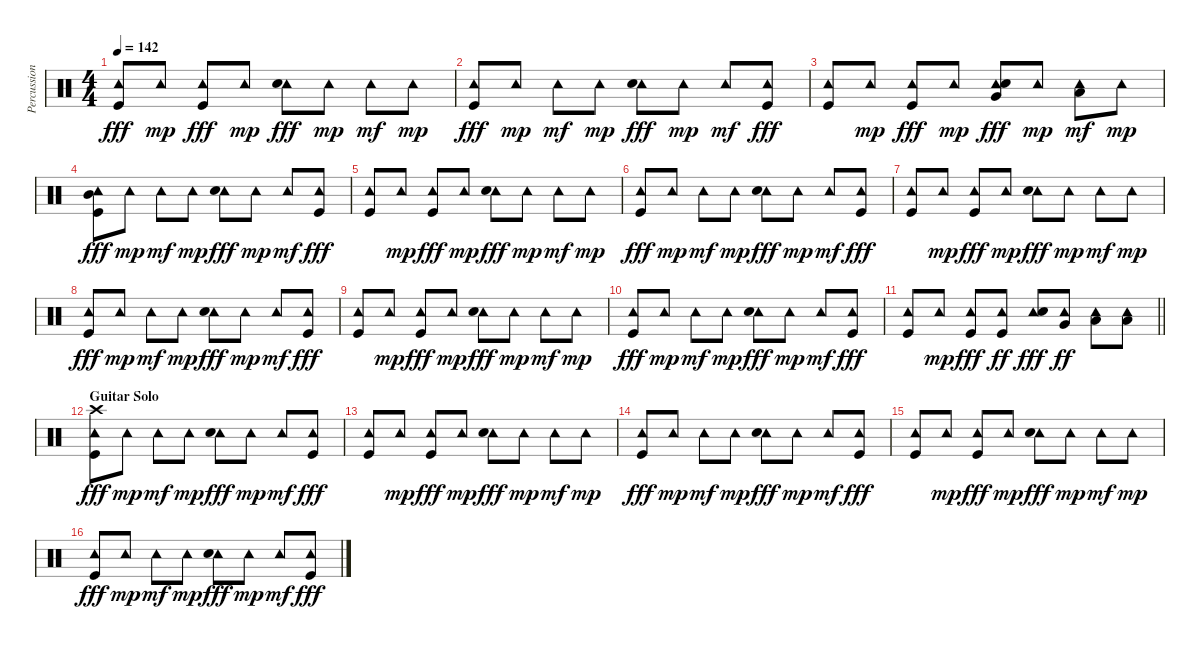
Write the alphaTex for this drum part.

\track ("Percussion" "Percussion") {instrument percussion}
\staff {score}
\articulation defaults
\ts (4 4)
\tempo 142
\clef neutral
\ks c
("Tambourine (hit)" "Kick (hit)").8{dy fff} "Tambourine (hit)".8{dy mp} ("Tambourine (hit)" "Kick (hit)").8{dy fff} "Tambourine (hit)".8{dy mp} ("Tambourine (hit)" "Electric Snare (hit)").8{dy fff} "Tambourine (hit)".8{dy mp} "Tambourine (hit)".8{dy mf} "Tambourine (hit)".8{dy mp} |
("Tambourine (hit)" "Kick (hit)").8{dy fff} "Tambourine (hit)".8{dy mp} "Tambourine (hit)".8{dy mf} "Tambourine (hit)".8{dy mp} ("Tambourine (hit)" "Electric Snare (hit)").8{dy fff} "Tambourine (hit)".8{dy mp} "Tambourine (hit)".8{dy mf} ("Tambourine (hit)" "Kick (hit)").8{dy fff} |
("Tambourine (hit)" "Kick (hit)").8 "Tambourine (hit)".8{dy mp} ("Tambourine (hit)" "Kick (hit)").8{dy fff} "Tambourine (hit)".8{dy mp} ("Very Low Tom (hit)" "Tambourine (hit)" "Electric Snare (hit)").8{dy fff} "Tambourine (hit)".8{dy mp} ("Low Tom (hit)" "Tambourine (hit)").8{dy mf} "Tambourine (hit)".8{dy mp} |
("Mid Tom (hit)" "Tambourine (hit)" "Kick (hit)").8{dy fff} "Tambourine (hit)".8{dy mp} "Tambourine (hit)".8{dy mf} "Tambourine (hit)".8{dy mp} ("Tambourine (hit)" "Electric Snare (hit)").8{dy fff} "Tambourine (hit)".8{dy mp} "Tambourine (hit)".8{dy mf} ("Tambourine (hit)" "Kick (hit)").8{dy fff} |
("Tambourine (hit)" "Kick (hit)").8 "Tambourine (hit)".8{dy mp} ("Tambourine (hit)" "Kick (hit)").8{dy fff} "Tambourine (hit)".8{dy mp} ("Tambourine (hit)" "Electric Snare (hit)").8{dy fff} "Tambourine (hit)".8{dy mp} "Tambourine (hit)".8{dy mf} "Tambourine (hit)".8{dy mp} |
("Tambourine (hit)" "Kick (hit)").8{dy fff} "Tambourine (hit)".8{dy mp} "Tambourine (hit)".8{dy mf} "Tambourine (hit)".8{dy mp} ("Tambourine (hit)" "Electric Snare (hit)").8{dy fff} "Tambourine (hit)".8{dy mp} "Tambourine (hit)".8{dy mf} ("Tambourine (hit)" "Kick (hit)").8{dy fff} |
("Tambourine (hit)" "Kick (hit)").8 "Tambourine (hit)".8{dy mp} ("Tambourine (hit)" "Kick (hit)").8{dy fff} "Tambourine (hit)".8{dy mp} ("Tambourine (hit)" "Electric Snare (hit)").8{dy fff} "Tambourine (hit)".8{dy mp} "Tambourine (hit)".8{dy mf} "Tambourine (hit)".8{dy mp} |
("Tambourine (hit)" "Kick (hit)").8{dy fff} "Tambourine (hit)".8{dy mp} "Tambourine (hit)".8{dy mf} "Tambourine (hit)".8{dy mp} ("Tambourine (hit)" "Electric Snare (hit)").8{dy fff} "Tambourine (hit)".8{dy mp} "Tambourine (hit)".8{dy mf} ("Tambourine (hit)" "Kick (hit)").8{dy fff} |
("Tambourine (hit)" "Kick (hit)").8 "Tambourine (hit)".8{dy mp} ("Tambourine (hit)" "Kick (hit)").8{dy fff} "Tambourine (hit)".8{dy mp} ("Tambourine (hit)" "Electric Snare (hit)").8{dy fff} "Tambourine (hit)".8{dy mp} "Tambourine (hit)".8{dy mf} "Tambourine (hit)".8{dy mp} |
("Tambourine (hit)" "Kick (hit)").8{dy fff} "Tambourine (hit)".8{dy mp} "Tambourine (hit)".8{dy mf} "Tambourine (hit)".8{dy mp} ("Tambourine (hit)" "Electric Snare (hit)").8{dy fff} "Tambourine (hit)".8{dy mp} "Tambourine (hit)".8{dy mf} ("Tambourine (hit)" "Kick (hit)").8{dy fff} |
\barLineRight lightlight
("Tambourine (hit)" "Kick (hit)").8 "Tambourine (hit)".8{dy mp} ("Tambourine (hit)" "Kick (hit)").8{dy fff} ("Tambourine (hit)" "Kick (hit)").8{dy ff} ("Tambourine (hit)" "Electric Snare (hit)").8{dy fff} ("Tambourine (hit)" "Very Low Tom (hit)").8{dy ff} ("Tambourine (hit)" "Low Floor Tom (hit)").8 ("Tambourine (hit)" "Low Floor Tom (hit)").8 |
\section ("" "Guitar Solo")
("Crash high (hit)" "Tambourine (hit)" "Kick (hit)").8{dy fff} "Tambourine (hit)".8{dy mp} "Tambourine (hit)".8{dy mf} "Tambourine (hit)".8{dy mp} ("Tambourine (hit)" "Electric Snare (hit)").8{dy fff} "Tambourine (hit)".8{dy mp} "Tambourine (hit)".8{dy mf} ("Tambourine (hit)" "Kick (hit)").8{dy fff} |
("Tambourine (hit)" "Kick (hit)").8 "Tambourine (hit)".8{dy mp} ("Tambourine (hit)" "Kick (hit)").8{dy fff} "Tambourine (hit)".8{dy mp} ("Tambourine (hit)" "Electric Snare (hit)").8{dy fff} "Tambourine (hit)".8{dy mp} "Tambourine (hit)".8{dy mf} "Tambourine (hit)".8{dy mp} |
("Tambourine (hit)" "Kick (hit)").8{dy fff} "Tambourine (hit)".8{dy mp} "Tambourine (hit)".8{dy mf} "Tambourine (hit)".8{dy mp} ("Tambourine (hit)" "Electric Snare (hit)").8{dy fff} "Tambourine (hit)".8{dy mp} "Tambourine (hit)".8{dy mf} ("Tambourine (hit)" "Kick (hit)").8{dy fff} |
("Tambourine (hit)" "Kick (hit)").8 "Tambourine (hit)".8{dy mp} ("Tambourine (hit)" "Kick (hit)").8{dy fff} "Tambourine (hit)".8{dy mp} ("Tambourine (hit)" "Electric Snare (hit)").8{dy fff} "Tambourine (hit)".8{dy mp} "Tambourine (hit)".8{dy mf} "Tambourine (hit)".8{dy mp} |
("Tambourine (hit)" "Kick (hit)").8{dy fff} "Tambourine (hit)".8{dy mp} "Tambourine (hit)".8{dy mf} "Tambourine (hit)".8{dy mp} ("Tambourine (hit)" "Electric Snare (hit)").8{dy fff} "Tambourine (hit)".8{dy mp} "Tambourine (hit)".8{dy mf} ("Tambourine (hit)" "Kick (hit)").8{dy fff}
